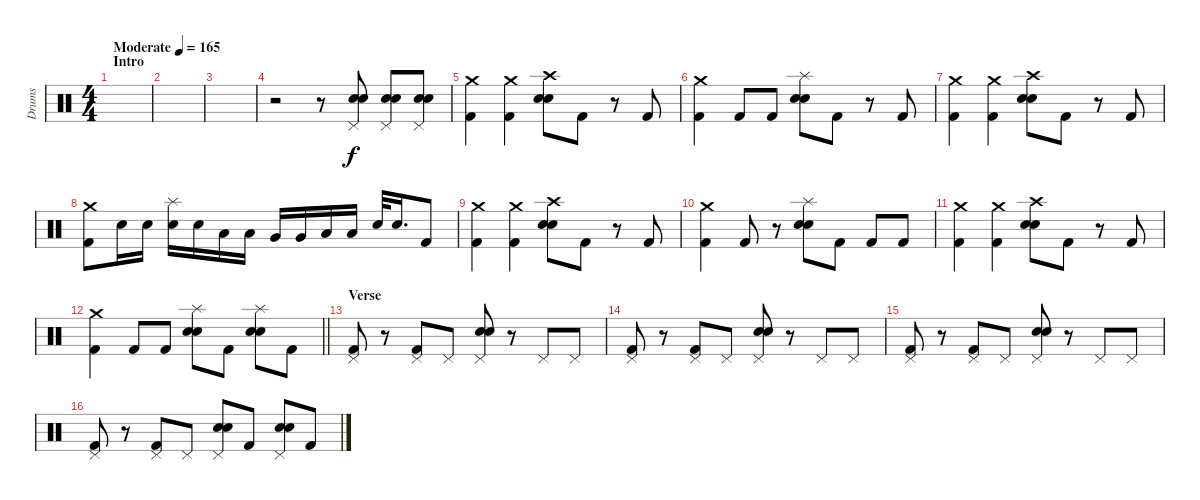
\track ("Drums" "Drums") {instrument percussion}
\staff {score}
\articulation defaults
\ts (4 4)
\section ("" "Intro")
\tempo (165 "Moderate")
\clef neutral
\ks c
|
|
|
r.2 r.8 ("Pedal Hi-Hat (hit)" "Electric Snare (hit)" "Snare (hit) 2").8 ("Pedal Hi-Hat (hit)" "Electric Snare (hit)" "Snare (hit) 2").8 ("Pedal Hi-Hat (hit)" "Electric Snare (hit)" "Snare (hit) 2").8 |
("Crash medium (hit)" "Kick (hit) 2").4 ("Crash medium (hit)" "Kick (hit) 2").4 ("Crash high (hit)" "Electric Snare (hit)" "Snare (hit) 2").8 "Kick (hit) 2".8 r.8 "Kick (hit) 2".8 |
("Crash medium (hit)" "Kick (hit) 2").4 "Kick (hit) 2".8 "Kick (hit) 2".8 ("Splash (hit)" "Electric Snare (hit)" "Snare (hit) 2").8 "Kick (hit) 2".8 r.8 "Kick (hit) 2".8 |
("Crash medium (hit)" "Kick (hit) 2").4 ("Crash medium (hit)" "Kick (hit) 2").4 ("Crash high (hit)" "Electric Snare (hit)" "Snare (hit) 2").8 "Kick (hit) 2".8 r.8 "Kick (hit) 2".8 |
("Crash medium (hit)" "Kick (hit) 2").8 "Electric Snare (hit)".16 "Electric Snare (hit)".16 ("Splash (hit)" "Electric Snare (hit)").16 "Electric Snare (hit)".16 "Low Tom (hit)".16 "Low Tom (hit)".16 "Very Low Tom (hit)".16 "Very Low Tom (hit)".16 "Low Floor Tom (hit)".16 "Low Floor Tom (hit)".16 "Electric Snare (hit)".32 "Electric Snare (hit)".16{d} "Kick (hit) 2".8 |
("Crash medium (hit)" "Kick (hit) 2").4 ("Crash medium (hit)" "Kick (hit) 2").4 ("Crash high (hit)" "Electric Snare (hit)" "Snare (hit) 2").8 "Kick (hit) 2".8 r.8 "Kick (hit) 2".8 |
("Crash medium (hit)" "Kick (hit) 2").4 "Kick (hit) 2".8 r.8 ("Splash (hit)" "Electric Snare (hit)" "Snare (hit) 2").8 "Kick (hit) 2".8 "Kick (hit) 2".8 "Kick (hit) 2".8 |
("Crash medium (hit)" "Kick (hit) 2").4 ("Crash medium (hit)" "Kick (hit) 2").4 ("Crash high (hit)" "Electric Snare (hit)" "Snare (hit) 2").8 "Kick (hit) 2".8 r.8 "Kick (hit) 2".8 |
\barLineRight lightlight
("Crash medium (hit)" "Kick (hit) 2").4 "Kick (hit) 2".8 "Kick (hit) 2".8 ("Splash (hit)" "Electric Snare (hit)" "Snare (hit) 2").8 "Kick (hit) 2".8 ("Splash (hit)" "Electric Snare (hit)" "Snare (hit) 2").8 "Kick (hit) 2".8 |
\section ("" "Verse")
("Pedal Hi-Hat (hit)" "Kick (hit) 2").8 r.8 ("Pedal Hi-Hat (hit)" "Kick (hit) 2").8 "Pedal Hi-Hat (hit)".8 ("Pedal Hi-Hat (hit)" "Electric Snare (hit)" "Snare (hit) 2").8 r.8 "Pedal Hi-Hat (hit)".8 "Pedal Hi-Hat (hit)".8 |
("Pedal Hi-Hat (hit)" "Kick (hit) 2").8 r.8 ("Pedal Hi-Hat (hit)" "Kick (hit) 2").8 "Pedal Hi-Hat (hit)".8 ("Pedal Hi-Hat (hit)" "Electric Snare (hit)" "Snare (hit) 2").8 r.8 "Pedal Hi-Hat (hit)".8 "Pedal Hi-Hat (hit)".8 |
("Pedal Hi-Hat (hit)" "Kick (hit) 2").8 r.8 ("Pedal Hi-Hat (hit)" "Kick (hit) 2").8 "Pedal Hi-Hat (hit)".8 ("Pedal Hi-Hat (hit)" "Electric Snare (hit)" "Snare (hit) 2").8 r.8 "Pedal Hi-Hat (hit)".8 "Pedal Hi-Hat (hit)".8 |
("Pedal Hi-Hat (hit)" "Kick (hit) 2").8 r.8 ("Pedal Hi-Hat (hit)" "Kick (hit) 2").8 "Pedal Hi-Hat (hit)".8 ("Pedal Hi-Hat (hit)" "Electric Snare (hit)" "Snare (hit) 2").8 "Kick (hit) 2".8 ("Pedal Hi-Hat (hit)" "Electric Snare (hit)" "Snare (hit) 2").8 "Kick (hit) 2".8
